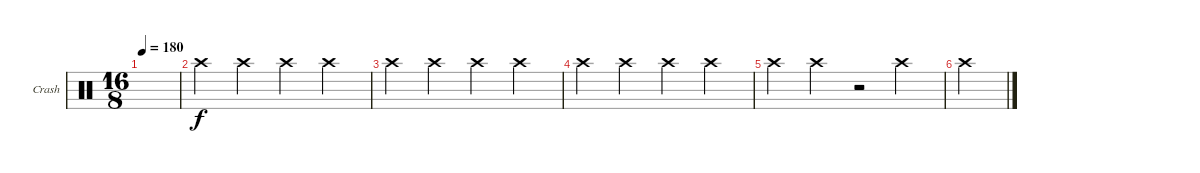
\defaultSystemsLayout 4
\bracketExtendMode groupsimilarinstruments
\firstSystemTrackNameOrientation horizontal
\otherSystemsTrackNameOrientation horizontal
\track ("Crashes" "Crash") {instrument percussion}
\staff {score}
\articulation defaults
\ts (16 8)
\tempo 180
\clef neutral
\ks c
|
"Crash high (hit)".2 "Crash high (hit)".2 "Crash high (hit)".2 "Crash high (hit)".2 |
"Crash high (hit)".2 "Crash high (hit)".2 "Crash high (hit)".2 "Crash high (hit)".2 |
"Crash high (hit)".2 "Crash high (hit)".2 "Crash high (hit)".2 "Crash high (hit)".2 |
"Crash high (hit)".2 "Crash high (hit)".2 r.2 "Crash high (hit)".2 |
"Crash high (hit)".2
